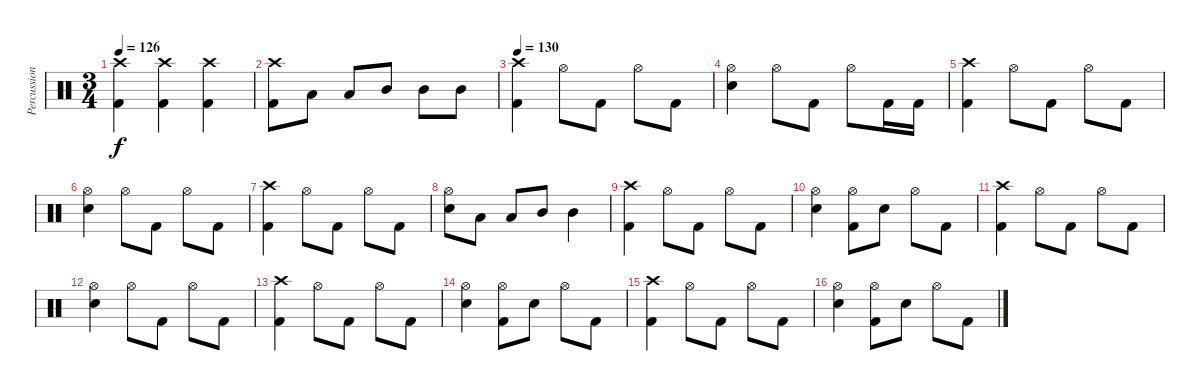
\track ("Percussion" "Percussion") {instrument percussion}
\staff {score}
\articulation defaults
\ts (3 4)
\tempo 126
\clef neutral
\ks c
("Crash high (hit)" "Kick (hit) 2").4{dy f} ("Crash high (hit)" "Kick (hit) 2").4 ("Crash high (hit)" "Kick (hit) 2").4 |
("Crash high (hit)" "Kick (hit) 2").8 "Low Tom (hit)".8 "Low Tom (hit)".8 "Mid Tom (hit)".8 "Mid Tom (hit)".8 "Mid Tom (hit)".8 |
\tempo 130
("Crash high (hit)" "Kick (hit) 2").4 "Hi-Hat (open)".8 "Kick (hit) 2".8 "Hi-Hat (open)".8 "Kick (hit) 2".8 |
("Hi-Hat (open)" "Snare (hit) 2").4 "Hi-Hat (open)".8 "Kick (hit) 2".8 "Hi-Hat (open)".8 "Kick (hit) 2".16 "Kick (hit) 2".16 |
("Crash high (hit)" "Kick (hit) 2").4 "Hi-Hat (open)".8 "Kick (hit) 2".8 "Hi-Hat (open)".8 "Kick (hit) 2".8 |
("Hi-Hat (open)" "Snare (hit) 2").4 "Hi-Hat (open)".8 "Kick (hit) 2".8 "Hi-Hat (open)".8 "Kick (hit) 2".8 |
("Crash high (hit)" "Kick (hit) 2").4 "Hi-Hat (open)".8 "Kick (hit) 2".8 "Hi-Hat (open)".8 "Kick (hit) 2".8 |
("Hi-Hat (open)" "Snare (hit) 2").8 "Low Tom (hit)".8 "Low Tom (hit)".8 "Mid Tom (hit)".8 "Mid Tom (hit)".4 |
("Crash high (hit)" "Kick (hit) 2").4 "Hi-Hat (open)".8 "Kick (hit) 2".8 "Hi-Hat (open)".8 "Kick (hit) 2".8 |
("Hi-Hat (open)" "Snare (hit) 2").4 ("Hi-Hat (open)" "Kick (hit) 2").8 "Snare (hit) 2".8 "Hi-Hat (open)".8 "Kick (hit) 2".8 |
("Crash high (hit)" "Kick (hit) 2").4 "Hi-Hat (open)".8 "Kick (hit) 2".8 "Hi-Hat (open)".8 "Kick (hit) 2".8 |
("Hi-Hat (open)" "Snare (hit) 2").4 "Hi-Hat (open)".8 "Kick (hit) 2".8 "Hi-Hat (open)".8 "Kick (hit) 2".8 |
("Crash high (hit)" "Kick (hit) 2").4 "Hi-Hat (open)".8 "Kick (hit) 2".8 "Hi-Hat (open)".8 "Kick (hit) 2".8 |
("Hi-Hat (open)" "Snare (hit) 2").4 ("Hi-Hat (open)" "Kick (hit) 2").8 "Snare (hit) 2".8 "Hi-Hat (open)".8 "Kick (hit) 2".8 |
("Crash high (hit)" "Kick (hit) 2").4 "Hi-Hat (open)".8 "Kick (hit) 2".8 "Hi-Hat (open)".8 "Kick (hit) 2".8 |
("Hi-Hat (open)" "Snare (hit) 2").4 ("Hi-Hat (open)" "Kick (hit) 2").8 "Snare (hit) 2".8 "Hi-Hat (open)".8 "Kick (hit) 2".8
